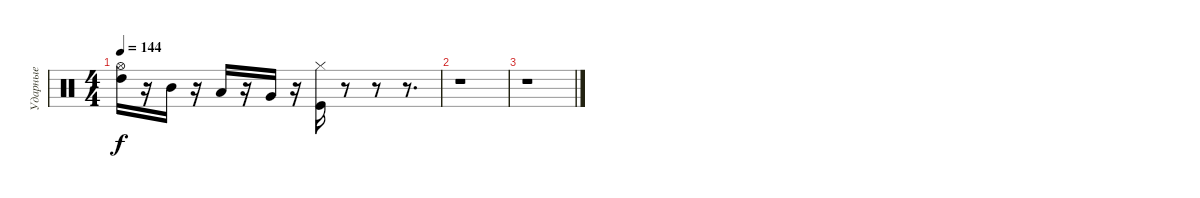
\track ("Ударные" "Ударные") {instrument percussion}
\staff {score}
\articulation defaults
\ts (4 4)
\tempo 144
\clef neutral
\ks c
("Hi-Hat (open)" "High Tom (hit)").16{dy f} r.16 "Mid Tom (hit)".16 r.16 "Low Tom (hit)".16 r.16 "Very Low Tom (hit)".16 r.16 ("Kick (hit)" "Hi-Hat (closed)").16 r.8 r.8 r.8{d} |
r.1 |
r.1
